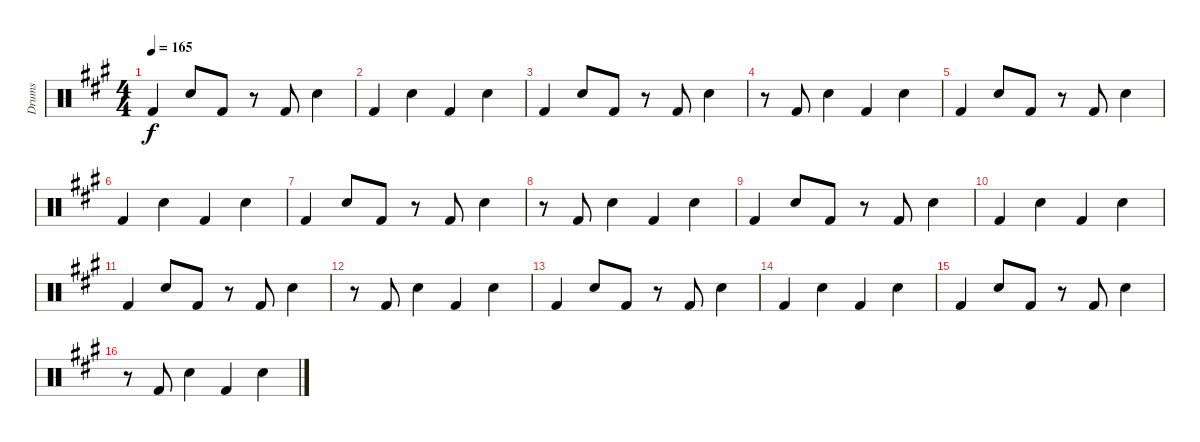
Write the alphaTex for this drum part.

\track ("Drums" "Drums") {instrument percussion}
\staff {score}
\articulation defaults
\ts (4 4)
\tempo 165
\clef neutral
\ks a "Kick (hit) 2".4{dy f} "Electric Snare (hit)".8 "Kick (hit) 2".8
r.8 "Kick (hit) 2".8 "Electric Snare (hit)".4 |
"Kick (hit) 2".4 "Electric Snare (hit)".4 "Kick (hit) 2".4 "Electric Snare (hit)".4 |
"Kick (hit) 2".4 "Electric Snare (hit)".8 "Kick (hit) 2".8 r.8 "Kick (hit) 2".8 "Electric Snare (hit)".4 |
r.8 "Kick (hit) 2".8 "Electric Snare (hit)".4 "Kick (hit) 2".4 "Electric Snare (hit)".4 |
"Kick (hit) 2".4 "Electric Snare (hit)".8 "Kick (hit) 2".8 r.8 "Kick (hit) 2".8 "Electric Snare (hit)".4 |
"Kick (hit) 2".4 "Electric Snare (hit)".4 "Kick (hit) 2".4 "Electric Snare (hit)".4 |
"Kick (hit) 2".4 "Electric Snare (hit)".8 "Kick (hit) 2".8 r.8 "Kick (hit) 2".8 "Electric Snare (hit)".4 |
r.8 "Kick (hit) 2".8 "Electric Snare (hit)".4 "Kick (hit) 2".4 "Electric Snare (hit)".4 |
"Kick (hit) 2".4 "Electric Snare (hit)".8 "Kick (hit) 2".8 r.8 "Kick (hit) 2".8 "Electric Snare (hit)".4 |
"Kick (hit) 2".4 "Electric Snare (hit)".4 "Kick (hit) 2".4 "Electric Snare (hit)".4 |
"Kick (hit) 2".4 "Electric Snare (hit)".8 "Kick (hit) 2".8 r.8 "Kick (hit) 2".8 "Electric Snare (hit)".4 |
r.8 "Kick (hit) 2".8 "Electric Snare (hit)".4 "Kick (hit) 2".4 "Electric Snare (hit)".4 |
"Kick (hit) 2".4 "Electric Snare (hit)".8 "Kick (hit) 2".8 r.8 "Kick (hit) 2".8 "Electric Snare (hit)".4 |
"Kick (hit) 2".4 "Electric Snare (hit)".4 "Kick (hit) 2".4 "Electric Snare (hit)".4 |
"Kick (hit) 2".4 "Electric Snare (hit)".8 "Kick (hit) 2".8 r.8 "Kick (hit) 2".8 "Electric Snare (hit)".4 |
r.8 "Kick (hit) 2".8 "Electric Snare (hit)".4 "Kick (hit) 2".4 "Electric Snare (hit)".4
